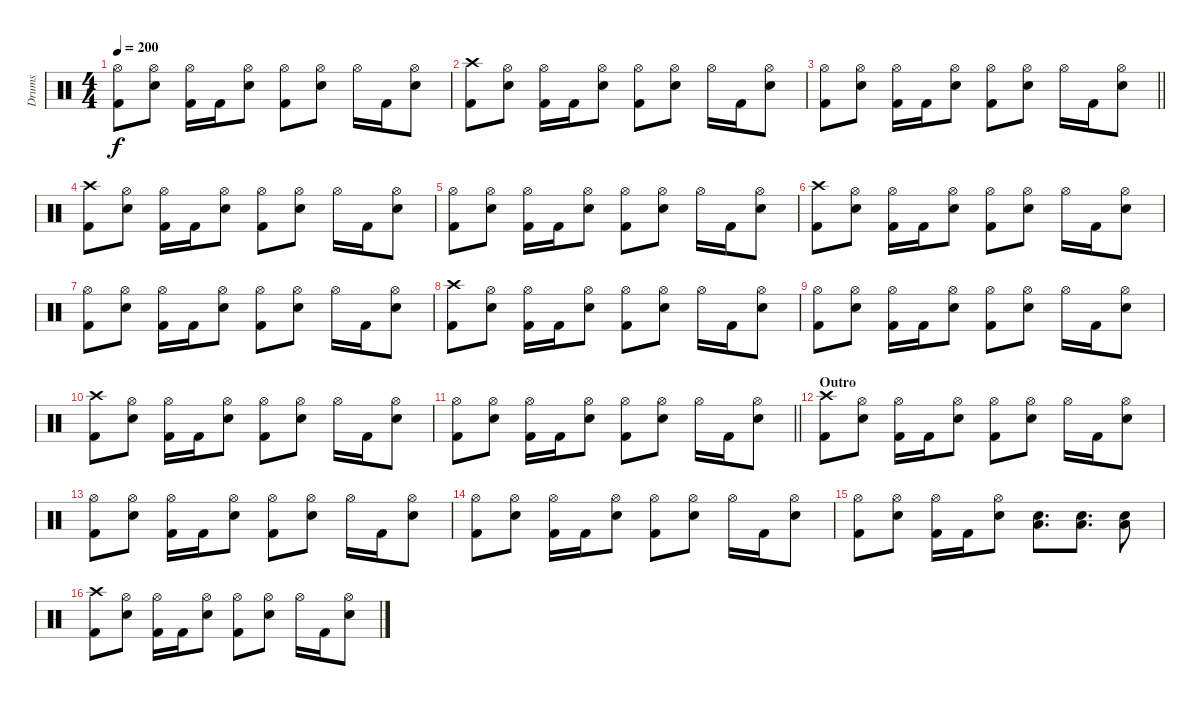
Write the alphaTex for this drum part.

\track ("Drums" "Drums") {instrument percussion}
\staff {score}
\articulation defaults
\ts (4 4)
\tempo 200
\clef neutral
\ks c
("Hi-Hat (open)" "Kick (hit) 2").8{dy f} ("Hi-Hat (open)" "Electric Snare (hit)").8 ("Hi-Hat (open)" "Kick (hit) 2").16 "Kick (hit) 2".16 ("Hi-Hat (open)" "Electric Snare (hit)").8 ("Hi-Hat (open)" "Kick (hit) 2").8 ("Hi-Hat (open)" "Electric Snare (hit)").8 "Hi-Hat (open)".16 "Kick (hit) 2".16 ("Hi-Hat (open)" "Electric Snare (hit)").8 |
("Crash high (hit)" "Kick (hit) 2").8 ("Hi-Hat (open)" "Electric Snare (hit)").8 ("Hi-Hat (open)" "Kick (hit) 2").16 "Kick (hit) 2".16 ("Hi-Hat (open)" "Electric Snare (hit)").8 ("Hi-Hat (open)" "Kick (hit) 2").8 ("Hi-Hat (open)" "Electric Snare (hit)").8 "Hi-Hat (open)".16 "Kick (hit) 2".16 ("Hi-Hat (open)" "Electric Snare (hit)").8 |
\barLineRight lightlight
("Hi-Hat (open)" "Kick (hit) 2").8 ("Hi-Hat (open)" "Electric Snare (hit)").8 ("Hi-Hat (open)" "Kick (hit) 2").16 "Kick (hit) 2".16 ("Hi-Hat (open)" "Electric Snare (hit)").8 ("Hi-Hat (open)" "Kick (hit) 2").8 ("Hi-Hat (open)" "Electric Snare (hit)").8 "Hi-Hat (open)".16 "Kick (hit) 2".16 ("Hi-Hat (open)" "Electric Snare (hit)").8 |
("Crash high (hit)" "Kick (hit) 2").8 ("Hi-Hat (open)" "Electric Snare (hit)").8 ("Hi-Hat (open)" "Kick (hit) 2").16 "Kick (hit) 2".16 ("Hi-Hat (open)" "Electric Snare (hit)").8 ("Hi-Hat (open)" "Kick (hit) 2").8 ("Hi-Hat (open)" "Electric Snare (hit)").8 "Hi-Hat (open)".16 "Kick (hit) 2".16 ("Hi-Hat (open)" "Electric Snare (hit)").8 |
("Hi-Hat (open)" "Kick (hit) 2").8 ("Hi-Hat (open)" "Electric Snare (hit)").8 ("Hi-Hat (open)" "Kick (hit) 2").16 "Kick (hit) 2".16 ("Hi-Hat (open)" "Electric Snare (hit)").8 ("Hi-Hat (open)" "Kick (hit) 2").8 ("Hi-Hat (open)" "Electric Snare (hit)").8 "Hi-Hat (open)".16 "Kick (hit) 2".16 ("Hi-Hat (open)" "Electric Snare (hit)").8 |
("Crash high (hit)" "Kick (hit) 2").8 ("Hi-Hat (open)" "Electric Snare (hit)").8 ("Hi-Hat (open)" "Kick (hit) 2").16 "Kick (hit) 2".16 ("Hi-Hat (open)" "Electric Snare (hit)").8 ("Hi-Hat (open)" "Kick (hit) 2").8 ("Hi-Hat (open)" "Electric Snare (hit)").8 "Hi-Hat (open)".16 "Kick (hit) 2".16 ("Hi-Hat (open)" "Electric Snare (hit)").8 |
("Hi-Hat (open)" "Kick (hit) 2").8 ("Hi-Hat (open)" "Electric Snare (hit)").8 ("Hi-Hat (open)" "Kick (hit) 2").16 "Kick (hit) 2".16 ("Hi-Hat (open)" "Electric Snare (hit)").8 ("Hi-Hat (open)" "Kick (hit) 2").8 ("Hi-Hat (open)" "Electric Snare (hit)").8 "Hi-Hat (open)".16 "Kick (hit) 2".16 ("Hi-Hat (open)" "Electric Snare (hit)").8 |
("Crash high (hit)" "Kick (hit) 2").8 ("Hi-Hat (open)" "Electric Snare (hit)").8 ("Hi-Hat (open)" "Kick (hit) 2").16 "Kick (hit) 2".16 ("Hi-Hat (open)" "Electric Snare (hit)").8 ("Hi-Hat (open)" "Kick (hit) 2").8 ("Hi-Hat (open)" "Electric Snare (hit)").8 "Hi-Hat (open)".16 "Kick (hit) 2".16 ("Hi-Hat (open)" "Electric Snare (hit)").8 |
("Hi-Hat (open)" "Kick (hit) 2").8 ("Hi-Hat (open)" "Electric Snare (hit)").8 ("Hi-Hat (open)" "Kick (hit) 2").16 "Kick (hit) 2".16 ("Hi-Hat (open)" "Electric Snare (hit)").8 ("Hi-Hat (open)" "Kick (hit) 2").8 ("Hi-Hat (open)" "Electric Snare (hit)").8 "Hi-Hat (open)".16 "Kick (hit) 2".16 ("Hi-Hat (open)" "Electric Snare (hit)").8 |
("Crash high (hit)" "Kick (hit) 2").8 ("Hi-Hat (open)" "Electric Snare (hit)").8 ("Hi-Hat (open)" "Kick (hit) 2").16 "Kick (hit) 2".16 ("Hi-Hat (open)" "Electric Snare (hit)").8 ("Hi-Hat (open)" "Kick (hit) 2").8 ("Hi-Hat (open)" "Electric Snare (hit)").8 "Hi-Hat (open)".16 "Kick (hit) 2".16 ("Hi-Hat (open)" "Electric Snare (hit)").8 |
\barLineRight lightlight
("Hi-Hat (open)" "Kick (hit) 2").8 ("Hi-Hat (open)" "Electric Snare (hit)").8 ("Hi-Hat (open)" "Kick (hit) 2").16 "Kick (hit) 2".16 ("Hi-Hat (open)" "Electric Snare (hit)").8 ("Hi-Hat (open)" "Kick (hit) 2").8 ("Hi-Hat (open)" "Electric Snare (hit)").8 "Hi-Hat (open)".16 "Kick (hit) 2".16 ("Hi-Hat (open)" "Electric Snare (hit)").8 |
\section ("" "Outro")
("Crash high (hit)" "Kick (hit) 2").8 ("Hi-Hat (open)" "Electric Snare (hit)").8 ("Hi-Hat (open)" "Kick (hit) 2").16 "Kick (hit) 2".16 ("Hi-Hat (open)" "Electric Snare (hit)").8 ("Hi-Hat (open)" "Kick (hit) 2").8 ("Hi-Hat (open)" "Electric Snare (hit)").8 "Hi-Hat (open)".16 "Kick (hit) 2".16 ("Hi-Hat (open)" "Electric Snare (hit)").8 |
("Hi-Hat (open)" "Kick (hit) 2").8 ("Hi-Hat (open)" "Electric Snare (hit)").8 ("Hi-Hat (open)" "Kick (hit) 2").16 "Kick (hit) 2".16 ("Hi-Hat (open)" "Electric Snare (hit)").8 ("Hi-Hat (open)" "Kick (hit) 2").8 ("Hi-Hat (open)" "Electric Snare (hit)").8 "Hi-Hat (open)".16 "Kick (hit) 2".16 ("Hi-Hat (open)" "Electric Snare (hit)").8 |
("Hi-Hat (open)" "Kick (hit) 2").8 ("Hi-Hat (open)" "Electric Snare (hit)").8 ("Hi-Hat (open)" "Kick (hit) 2").16 "Kick (hit) 2".16 ("Hi-Hat (open)" "Electric Snare (hit)").8 ("Hi-Hat (open)" "Kick (hit) 2").8 ("Hi-Hat (open)" "Electric Snare (hit)").8 "Hi-Hat (open)".16 "Kick (hit) 2".16 ("Hi-Hat (open)" "Electric Snare (hit)").8 |
("Hi-Hat (open)" "Kick (hit) 2").8 ("Hi-Hat (open)" "Electric Snare (hit)").8 ("Hi-Hat (open)" "Kick (hit) 2").16 "Kick (hit) 2".16 ("Hi-Hat (open)" "Electric Snare (hit)").8 ("Low Tom (hit)" "Electric Snare (hit)").8{d} ("Low Tom (hit)" "Electric Snare (hit)").8{d} ("Low Tom (hit)" "Electric Snare (hit)").8 |
("Crash high (hit)" "Kick (hit) 2").8 ("Hi-Hat (open)" "Electric Snare (hit)").8 ("Hi-Hat (open)" "Kick (hit) 2").16 "Kick (hit) 2".16 ("Hi-Hat (open)" "Electric Snare (hit)").8 ("Hi-Hat (open)" "Kick (hit) 2").8 ("Hi-Hat (open)" "Electric Snare (hit)").8 "Hi-Hat (open)".16 "Kick (hit) 2".16 ("Hi-Hat (open)" "Electric Snare (hit)").8
